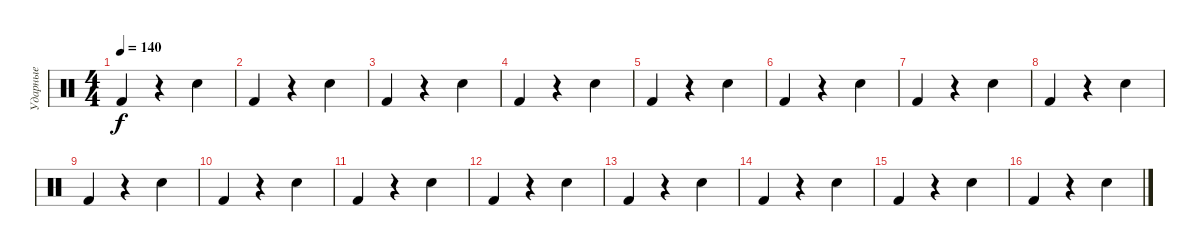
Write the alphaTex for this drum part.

\track ("Ударные" "Ударные") {instrument percussion}
\staff {score}
\articulation defaults
\ts (4 4)
\tempo 140
\clef neutral
\ks c "Kick (hit) 2".4{dy f}
r.4 "Snare (hit) 2".4 |
"Kick (hit) 2".4 r.4 "Snare (hit) 2".4 |
"Kick (hit) 2".4 r.4 "Snare (hit) 2".4 |
"Kick (hit) 2".4 r.4 "Snare (hit) 2".4 |
"Kick (hit) 2".4 r.4 "Snare (hit) 2".4 |
"Kick (hit) 2".4 r.4 "Snare (hit) 2".4 |
"Kick (hit) 2".4 r.4 "Snare (hit) 2".4 |
"Kick (hit) 2".4 r.4 "Snare (hit) 2".4 |
"Kick (hit) 2".4 r.4 "Snare (hit) 2".4 |
"Kick (hit) 2".4 r.4 "Snare (hit) 2".4 |
"Kick (hit) 2".4 r.4 "Snare (hit) 2".4 |
"Kick (hit) 2".4 r.4 "Snare (hit) 2".4 |
"Kick (hit) 2".4 r.4 "Snare (hit) 2".4 |
"Kick (hit) 2".4 r.4 "Snare (hit) 2".4 |
"Kick (hit) 2".4 r.4 "Snare (hit) 2".4 |
"Kick (hit) 2".4 r.4 "Snare (hit) 2".4
